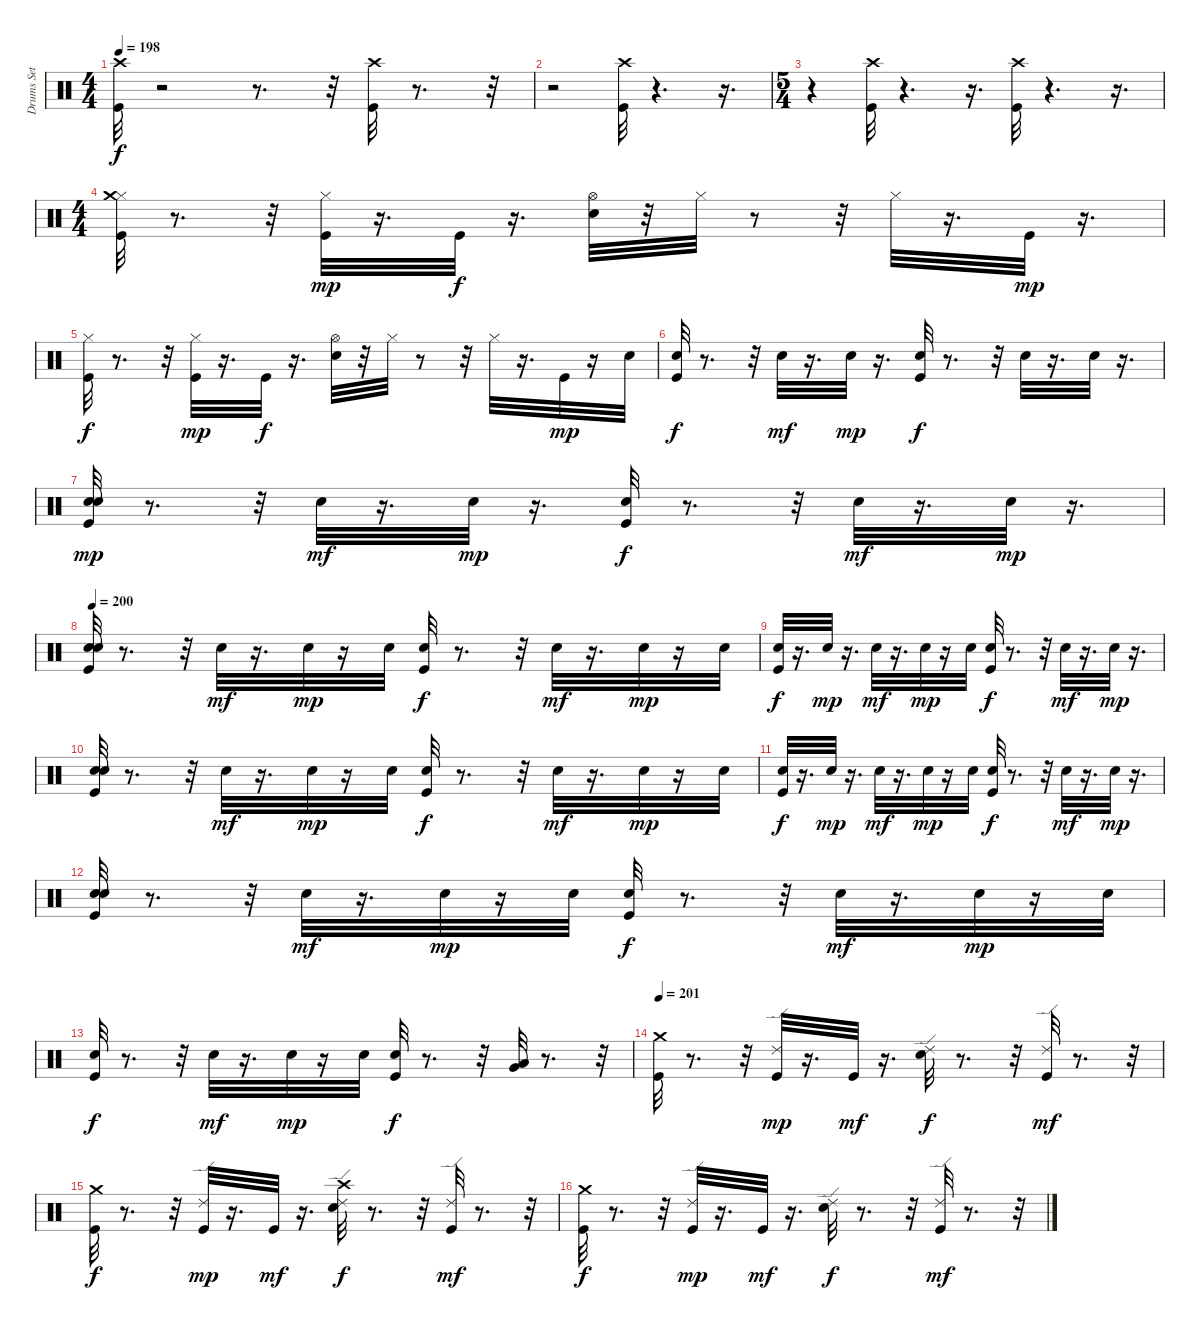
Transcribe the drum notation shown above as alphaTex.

\track ("Drums Set" "Drums Set") {instrument percussion}
\staff {score}
\articulation defaults
\ts (4 4)
\tempo 198
\clef neutral
\ks c
("Crash high (hit)" "Kick (hit)").32{dy f} r.2 r.8{d} r.32 ("Kick (hit)" "Crash high (hit)").32 r.8{d} r.32 |
r.2 ("Kick (hit)" "Crash high (hit)").32 r.4{d} r.16{d} |
\ts (5 4)
r.4 ("Kick (hit)" "Crash high (hit)").32 r.4{d} r.16{d} ("Crash high (hit)" "Kick (hit)").32 r.4{d} r.16{d} |
\ts (4 4)
("Hi-Hat (closed)" "Kick (hit)" "Crash medium (hit)").32 r.8{d} r.32 ("Hi-Hat (closed)" "Kick (hit)").32{dy mp} r.16{d} "Kick (hit)".32{dy f} r.16{d} ("Hi-Hat (open)" "Snare (hit) 2").32 r.32 "Hi-Hat (closed)".32 r.8 r.32 "Hi-Hat (closed)".32 r.16{d} "Kick (hit)".32{dy mp} r.16{d} |
("Hi-Hat (closed)" "Kick (hit)").32{dy f} r.8{d} r.32 ("Hi-Hat (closed)" "Kick (hit)").32{dy mp} r.16{d} "Kick (hit)".32{dy f} r.16{d} ("Hi-Hat (open)" "Snare (hit) 2").32 r.32 "Hi-Hat (closed)".32 r.8 r.32 "Hi-Hat (closed)".32 r.16{d} "Kick (hit)".32{dy mp} r.16 "Electric Snare (hit)".32 |
("Snare (hit) 2" "Kick (hit)").32{dy f} r.8{d} r.32 "Snare (hit) 2".32{dy mf} r.16{d} "Snare (hit) 2".32{dy mp} r.16{d} ("Snare (hit) 2" "Kick (hit)").32{dy f} r.8{d} r.32 "Snare (hit) 2".32 r.16{d} "Snare (hit) 2".32 r.16{d} |
("Snare (hit) 2" "Kick (hit)" "Electric Snare (hit)").32{dy mp} r.8{d} r.32 "Snare (hit) 2".32{dy mf} r.16{d} "Snare (hit) 2".32{dy mp} r.16{d} ("Snare (hit) 2" "Kick (hit)").32{dy f} r.8{d} r.32 "Snare (hit) 2".32{dy mf} r.16{d} "Snare (hit) 2".32{dy mp} r.16{d} |
\tempo 200
("Snare (hit) 2" "Kick (hit)" "Electric Snare (hit)").32 r.8{d} r.32 "Snare (hit) 2".32{dy mf} r.16{d} "Snare (hit) 2".32{dy mp} r.16 "Electric Snare (hit)".32 ("Snare (hit) 2" "Kick (hit)").32{dy f} r.8{d} r.32 "Snare (hit) 2".32{dy mf} r.16{d} "Snare (hit) 2".32{dy mp} r.16 "Electric Snare (hit)".32 |
("Kick (hit)" "Snare (hit) 2").32{dy f} r.16{d} "Snare (hit) 2".32{dy mp} r.16{d} "Snare (hit) 2".32{dy mf} r.16{d} "Snare (hit) 2".32{dy mp} r.16 "Electric Snare (hit)".32 ("Kick (hit)" "Snare (hit) 2").32{dy f} r.8{d} r.32 "Snare (hit) 2".32{dy mf} r.16{d} "Snare (hit) 2".32{dy mp} r.16{d} |
("Snare (hit) 2" "Kick (hit)" "Electric Snare (hit)").32 r.8{d} r.32 "Snare (hit) 2".32{dy mf} r.16{d} "Snare (hit) 2".32{dy mp} r.16 "Electric Snare (hit)".32 ("Snare (hit) 2" "Kick (hit)").32{dy f} r.8{d} r.32 "Snare (hit) 2".32{dy mf} r.16{d} "Snare (hit) 2".32{dy mp} r.16 "Electric Snare (hit)".32 |
("Kick (hit)" "Snare (hit) 2").32{dy f} r.16{d} "Snare (hit) 2".32{dy mp} r.16{d} "Snare (hit) 2".32{dy mf} r.16{d} "Snare (hit) 2".32{dy mp} r.16 "Electric Snare (hit)".32 ("Kick (hit)" "Snare (hit) 2").32{dy f} r.8{d} r.32 "Snare (hit) 2".32{dy mf} r.16{d} "Snare (hit) 2".32{dy mp} r.16{d} |
("Snare (hit) 2" "Kick (hit)" "Electric Snare (hit)").32 r.8{d} r.32 "Snare (hit) 2".32{dy mf} r.16{d} "Snare (hit) 2".32{dy mp} r.16 "Electric Snare (hit)".32 ("Snare (hit) 2" "Kick (hit)").32{dy f} r.8{d} r.32 "Snare (hit) 2".32{dy mf} r.16{d} "Snare (hit) 2".32{dy mp} r.16 "Electric Snare (hit)".32 |
("Kick (hit)" "Snare (hit) 2").32{dy f} r.8{d} r.32 "Snare (hit) 2".32{dy mf} r.16{d} "Snare (hit) 2".32{dy mp} r.16 "Electric Snare (hit)".32 ("Kick (hit)" "Snare (hit) 2").32{dy f} r.8{d} r.32 ("Low Tom (hit)" "Very Low Tom (hit)").32 r.8{d} r.32 |
\tempo 201
("Crash medium (hit)" "Kick (hit)").32 r.8{d} r.32 ("Ride (edge) 2" "Kick (hit)").32{dy mp} r.16{d} "Kick (hit)".32{dy mf} r.16{d} ("Ride (edge) 2" "Snare (hit) 2").32{dy f} r.8{d} r.32 ("Ride (edge) 2" "Kick (hit)").32{dy mf} r.8{d} r.32 |
("Crash medium (hit)" "Kick (hit)").32{dy f} r.8{d} r.32 ("Kick (hit)" "Ride (edge) 2").32{dy mp} r.16{d} "Kick (hit)".32{dy mf} r.16{d} ("Crash high (hit)" "Ride (edge) 2" "Snare (hit) 2").32{dy f} r.8{d} r.32 ("Ride (edge) 2" "Kick (hit)").32{dy mf} r.8{d} r.32 |
("Crash medium (hit)" "Kick (hit)").32{dy f} r.8{d} r.32 ("Ride (edge) 2" "Kick (hit)").32{dy mp} r.16{d} "Kick (hit)".32{dy mf} r.16{d} ("Ride (edge) 2" "Snare (hit) 2").32{dy f} r.8{d} r.32 ("Ride (edge) 2" "Kick (hit)").32{dy mf} r.8{d} r.32
